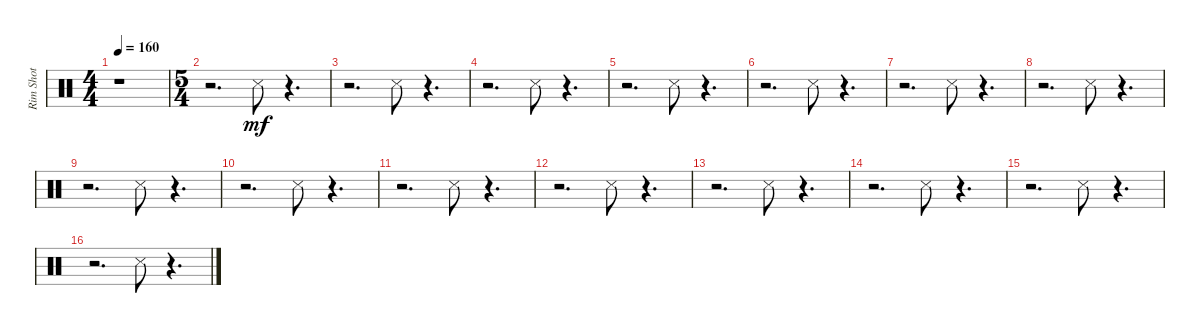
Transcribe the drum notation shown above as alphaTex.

\track ("Rim Shot" "Rim Shot") {instrument percussion}
\staff {score}
\articulation defaults
\ts (4 4)
\tempo 160
\clef neutral
\ks c
r.1{dy mf} |
\ts (5 4)
r.2{d} "Snare (side stick) 3".8 r.4{d} |
r.2{d} "Snare (side stick) 3".8 r.4{d} |
r.2{d} "Snare (side stick) 3".8 r.4{d} |
r.2{d} "Snare (side stick) 3".8 r.4{d} |
r.2{d} "Snare (side stick) 3".8 r.4{d} |
r.2{d} "Snare (side stick) 3".8 r.4{d} |
r.2{d} "Snare (side stick) 3".8 r.4{d} |
r.2{d} "Snare (side stick) 3".8 r.4{d} |
r.2{d} "Snare (side stick) 3".8 r.4{d} |
r.2{d} "Snare (side stick) 3".8 r.4{d} |
r.2{d} "Snare (side stick) 3".8 r.4{d} |
r.2{d} "Snare (side stick) 3".8 r.4{d} |
r.2{d} "Snare (side stick) 3".8 r.4{d} |
r.2{d} "Snare (side stick) 3".8 r.4{d} |
r.2{d} "Snare (side stick) 3".8 r.4{d}
